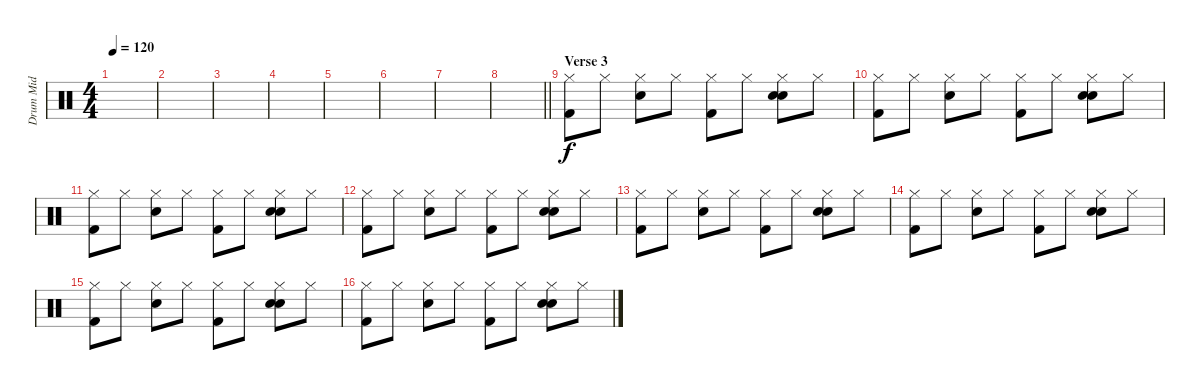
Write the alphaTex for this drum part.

\track ("Drum Mid" "Drum Mid") {instrument percussion}
\staff {score}
\articulation defaults
\ts (4 4)
\tempo 120
\clef neutral
\ks c
|
|
|
|
|
|
|
\barLineRight lightlight
|
\section ("" "Verse 3")
("Hi-Hat (closed)" "Kick (hit) 2").8 "Hi-Hat (closed)".8 ("Hi-Hat (closed)" "Snare (hit) 2").8 "Hi-Hat (closed)".8 ("Hi-Hat (closed)" "Kick (hit) 2").8 "Hi-Hat (closed)".8 ("Hi-Hat (closed)" "Snare (hit) 2" "Hand Clap (hit)").8 "Hi-Hat (closed)".8 |
("Hi-Hat (closed)" "Kick (hit) 2").8 "Hi-Hat (closed)".8 ("Hi-Hat (closed)" "Snare (hit) 2").8 "Hi-Hat (closed)".8 ("Hi-Hat (closed)" "Kick (hit) 2").8 "Hi-Hat (closed)".8 ("Hi-Hat (closed)" "Snare (hit) 2" "Hand Clap (hit)").8 "Hi-Hat (closed)".8 |
("Hi-Hat (closed)" "Kick (hit) 2").8 "Hi-Hat (closed)".8 ("Hi-Hat (closed)" "Snare (hit) 2").8 "Hi-Hat (closed)".8 ("Hi-Hat (closed)" "Kick (hit) 2").8 "Hi-Hat (closed)".8 ("Hi-Hat (closed)" "Snare (hit) 2" "Hand Clap (hit)").8 "Hi-Hat (closed)".8 |
("Hi-Hat (closed)" "Kick (hit) 2").8 "Hi-Hat (closed)".8 ("Hi-Hat (closed)" "Snare (hit) 2").8 "Hi-Hat (closed)".8 ("Hi-Hat (closed)" "Kick (hit) 2").8 "Hi-Hat (closed)".8 ("Hi-Hat (closed)" "Snare (hit) 2" "Hand Clap (hit)").8 "Hi-Hat (closed)".8 |
("Hi-Hat (closed)" "Kick (hit) 2").8 "Hi-Hat (closed)".8 ("Hi-Hat (closed)" "Snare (hit) 2").8 "Hi-Hat (closed)".8 ("Hi-Hat (closed)" "Kick (hit) 2").8 "Hi-Hat (closed)".8 ("Hi-Hat (closed)" "Snare (hit) 2" "Hand Clap (hit)").8 "Hi-Hat (closed)".8 |
("Hi-Hat (closed)" "Kick (hit) 2").8 "Hi-Hat (closed)".8 ("Hi-Hat (closed)" "Snare (hit) 2").8 "Hi-Hat (closed)".8 ("Hi-Hat (closed)" "Kick (hit) 2").8 "Hi-Hat (closed)".8 ("Hi-Hat (closed)" "Snare (hit) 2" "Hand Clap (hit)").8 "Hi-Hat (closed)".8 |
("Hi-Hat (closed)" "Kick (hit) 2").8 "Hi-Hat (closed)".8 ("Hi-Hat (closed)" "Snare (hit) 2").8 "Hi-Hat (closed)".8 ("Hi-Hat (closed)" "Kick (hit) 2").8 "Hi-Hat (closed)".8 ("Hi-Hat (closed)" "Snare (hit) 2" "Hand Clap (hit)").8 "Hi-Hat (closed)".8 |
("Hi-Hat (closed)" "Kick (hit) 2").8 "Hi-Hat (closed)".8 ("Hi-Hat (closed)" "Snare (hit) 2").8 "Hi-Hat (closed)".8 ("Hi-Hat (closed)" "Kick (hit) 2").8 "Hi-Hat (closed)".8 ("Hi-Hat (closed)" "Snare (hit) 2" "Hand Clap (hit)").8 "Hi-Hat (closed)".8
